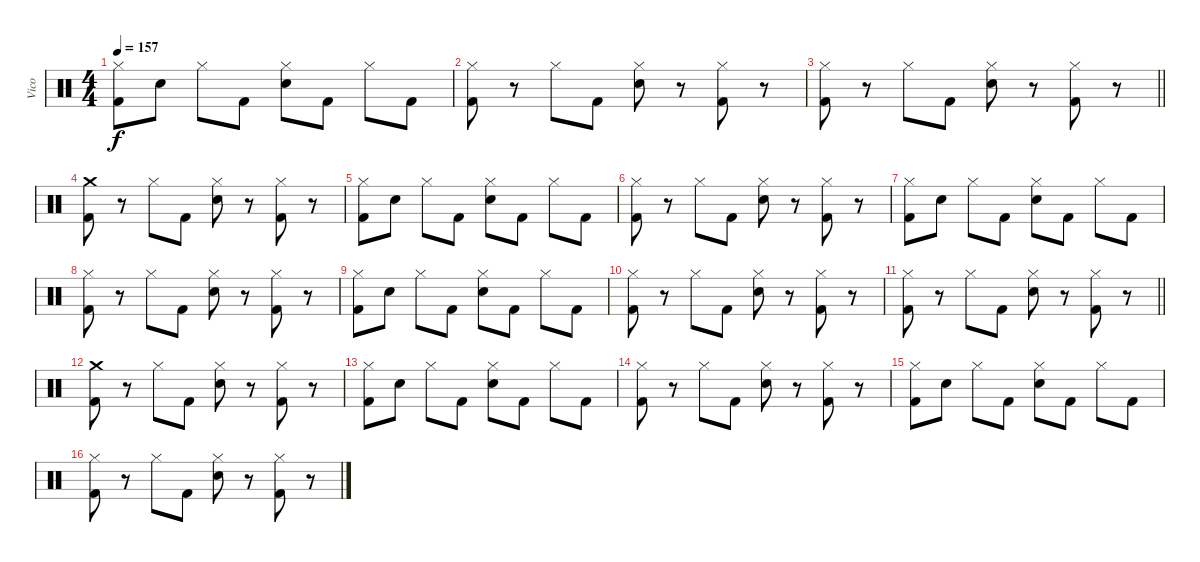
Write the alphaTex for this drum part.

\track ("Vico" "Vico") {instrument percussion}
\staff {score}
\articulation defaults
\ts (4 4)
\tempo 157
\clef neutral
\ks c
("Hi-Hat (closed)" "Kick (hit) 2").8{dy f} "Electric Snare (hit)".8 "Hi-Hat (closed)".8 "Kick (hit) 2".8 ("Hi-Hat (closed)" "Electric Snare (hit)").8 "Kick (hit) 2".8 "Hi-Hat (closed)".8 "Kick (hit) 2".8 |
("Hi-Hat (closed)" "Kick (hit) 2").8 r.8 "Hi-Hat (closed)".8 "Kick (hit) 2".8 ("Hi-Hat (closed)" "Electric Snare (hit)").8 r.8 ("Hi-Hat (closed)" "Kick (hit) 2").8 r.8 |
\barLineRight lightlight
("Hi-Hat (closed)" "Kick (hit) 2").8 r.8 "Hi-Hat (closed)".8 "Kick (hit) 2".8 ("Hi-Hat (closed)" "Electric Snare (hit)").8 r.8 ("Hi-Hat (closed)" "Kick (hit) 2").8 r.8 |
("Crash medium (hit)" "Kick (hit) 2").8 r.8 "Hi-Hat (closed)".8 "Kick (hit) 2".8 ("Hi-Hat (closed)" "Electric Snare (hit)").8 r.8 ("Hi-Hat (closed)" "Kick (hit) 2").8 r.8 |
("Hi-Hat (closed)" "Kick (hit) 2").8 "Electric Snare (hit)".8 "Hi-Hat (closed)".8 "Kick (hit) 2".8 ("Hi-Hat (closed)" "Electric Snare (hit)").8 "Kick (hit) 2".8 "Hi-Hat (closed)".8 "Kick (hit) 2".8 |
("Hi-Hat (closed)" "Kick (hit) 2").8 r.8 "Hi-Hat (closed)".8 "Kick (hit) 2".8 ("Hi-Hat (closed)" "Electric Snare (hit)").8 r.8 ("Hi-Hat (closed)" "Kick (hit) 2").8 r.8 |
("Hi-Hat (closed)" "Kick (hit) 2").8 "Electric Snare (hit)".8 "Hi-Hat (closed)".8 "Kick (hit) 2".8 ("Hi-Hat (closed)" "Electric Snare (hit)").8 "Kick (hit) 2".8 "Hi-Hat (closed)".8 "Kick (hit) 2".8 |
("Hi-Hat (closed)" "Kick (hit) 2").8 r.8 "Hi-Hat (closed)".8 "Kick (hit) 2".8 ("Hi-Hat (closed)" "Electric Snare (hit)").8 r.8 ("Hi-Hat (closed)" "Kick (hit) 2").8 r.8 |
("Hi-Hat (closed)" "Kick (hit) 2").8 "Electric Snare (hit)".8 "Hi-Hat (closed)".8 "Kick (hit) 2".8 ("Hi-Hat (closed)" "Electric Snare (hit)").8 "Kick (hit) 2".8 "Hi-Hat (closed)".8 "Kick (hit) 2".8 |
("Hi-Hat (closed)" "Kick (hit) 2").8 r.8 "Hi-Hat (closed)".8 "Kick (hit) 2".8 ("Hi-Hat (closed)" "Electric Snare (hit)").8 r.8 ("Hi-Hat (closed)" "Kick (hit) 2").8 r.8 |
\barLineRight lightlight
("Hi-Hat (closed)" "Kick (hit) 2").8 r.8 "Hi-Hat (closed)".8 "Kick (hit) 2".8 ("Hi-Hat (closed)" "Electric Snare (hit)").8 r.8 ("Hi-Hat (closed)" "Kick (hit) 2").8 r.8 |
("Crash medium (hit)" "Kick (hit) 2").8 r.8 "Hi-Hat (closed)".8 "Kick (hit) 2".8 ("Hi-Hat (closed)" "Electric Snare (hit)").8 r.8 ("Hi-Hat (closed)" "Kick (hit) 2").8 r.8 |
("Hi-Hat (closed)" "Kick (hit) 2").8 "Electric Snare (hit)".8 "Hi-Hat (closed)".8 "Kick (hit) 2".8 ("Hi-Hat (closed)" "Electric Snare (hit)").8 "Kick (hit) 2".8 "Hi-Hat (closed)".8 "Kick (hit) 2".8 |
("Hi-Hat (closed)" "Kick (hit) 2").8 r.8 "Hi-Hat (closed)".8 "Kick (hit) 2".8 ("Hi-Hat (closed)" "Electric Snare (hit)").8 r.8 ("Hi-Hat (closed)" "Kick (hit) 2").8 r.8 |
("Hi-Hat (closed)" "Kick (hit) 2").8 "Electric Snare (hit)".8 "Hi-Hat (closed)".8 "Kick (hit) 2".8 ("Hi-Hat (closed)" "Electric Snare (hit)").8 "Kick (hit) 2".8 "Hi-Hat (closed)".8 "Kick (hit) 2".8 |
("Hi-Hat (closed)" "Kick (hit) 2").8 r.8 "Hi-Hat (closed)".8 "Kick (hit) 2".8 ("Hi-Hat (closed)" "Electric Snare (hit)").8 r.8 ("Hi-Hat (closed)" "Kick (hit) 2").8 r.8
